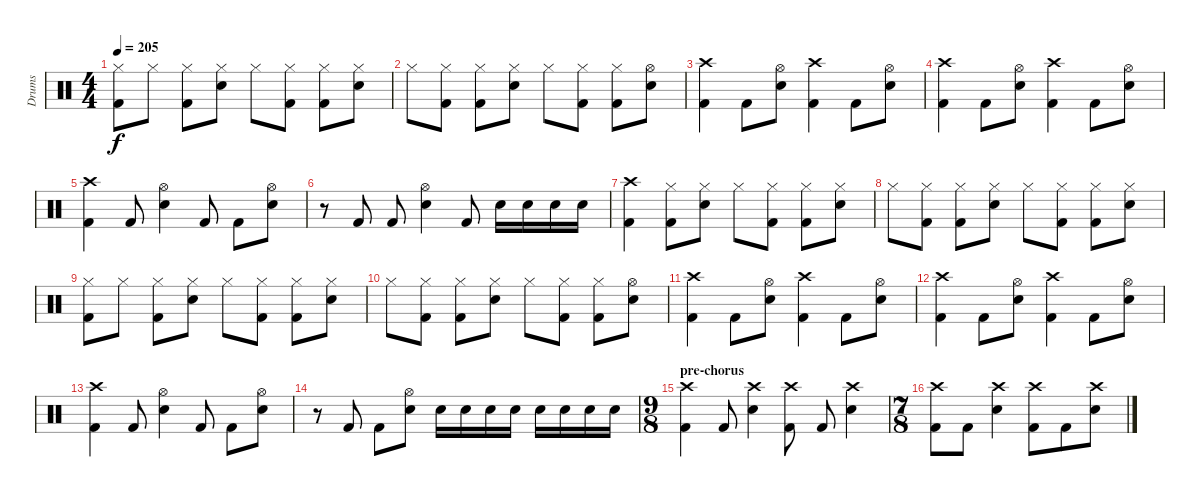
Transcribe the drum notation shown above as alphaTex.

\track ("Drums" "Drums") {instrument percussion}
\staff {score}
\articulation defaults
\ts (4 4)
\tempo 205
\clef neutral
\ks c
("Hi-Hat (closed)" "Kick (hit) 2").8{dy f} "Hi-Hat (closed)".8 ("Hi-Hat (closed)" "Kick (hit) 2").8 ("Hi-Hat (closed)" "Electric Snare (hit)").8 "Hi-Hat (closed)".8 ("Hi-Hat (closed)" "Kick (hit) 2").8 ("Hi-Hat (closed)" "Kick (hit) 2").8 ("Hi-Hat (closed)" "Electric Snare (hit)").8 |
"Hi-Hat (closed)".8 ("Hi-Hat (closed)" "Kick (hit) 2").8 ("Hi-Hat (closed)" "Kick (hit) 2").8 ("Hi-Hat (closed)" "Electric Snare (hit)").8 "Hi-Hat (closed)".8 ("Hi-Hat (closed)" "Kick (hit) 2").8 ("Hi-Hat (closed)" "Kick (hit) 2").8 ("Hi-Hat (open)" "Electric Snare (hit)").8 |
("Crash high (hit)" "Kick (hit) 2").4 "Kick (hit) 2".8 ("Hi-Hat (open)" "Electric Snare (hit)").8 ("Crash high (hit)" "Kick (hit) 2").4 "Kick (hit) 2".8 ("Hi-Hat (open)" "Electric Snare (hit)").8 |
("Crash high (hit)" "Kick (hit) 2").4 "Kick (hit) 2".8 ("Hi-Hat (open)" "Electric Snare (hit)").8 ("Crash high (hit)" "Kick (hit) 2").4 "Kick (hit) 2".8 ("Hi-Hat (open)" "Electric Snare (hit)").8 |
("Crash high (hit)" "Kick (hit) 2").4 "Kick (hit) 2".8 ("Hi-Hat (open)" "Electric Snare (hit)").4 "Kick (hit) 2".8 "Kick (hit) 2".8 ("Hi-Hat (open)" "Electric Snare (hit)").8 |
r.8 "Kick (hit) 2".8 "Kick (hit) 2".8 ("Hi-Hat (open)" "Electric Snare (hit)").4 "Kick (hit) 2".8 "Electric Snare (hit)".16 "Electric Snare (hit)".16 "Electric Snare (hit)".16 "Electric Snare (hit)".16 |
("Crash high (hit)" "Kick (hit) 2").4 ("Hi-Hat (closed)" "Kick (hit) 2").8 ("Hi-Hat (closed)" "Electric Snare (hit)").8 "Hi-Hat (closed)".8 ("Hi-Hat (closed)" "Kick (hit) 2").8 ("Hi-Hat (closed)" "Kick (hit) 2").8 ("Hi-Hat (closed)" "Electric Snare (hit)").8 |
"Hi-Hat (closed)".8 ("Hi-Hat (closed)" "Kick (hit) 2").8 ("Hi-Hat (closed)" "Kick (hit) 2").8 ("Hi-Hat (closed)" "Electric Snare (hit)").8 "Hi-Hat (closed)".8 ("Hi-Hat (closed)" "Kick (hit) 2").8 ("Hi-Hat (closed)" "Kick (hit) 2").8 ("Hi-Hat (closed)" "Electric Snare (hit)").8 |
("Hi-Hat (closed)" "Kick (hit) 2").8 "Hi-Hat (closed)".8 ("Hi-Hat (closed)" "Kick (hit) 2").8 ("Hi-Hat (closed)" "Electric Snare (hit)").8 "Hi-Hat (closed)".8 ("Hi-Hat (closed)" "Kick (hit) 2").8 ("Hi-Hat (closed)" "Kick (hit) 2").8 ("Hi-Hat (closed)" "Electric Snare (hit)").8 |
"Hi-Hat (closed)".8 ("Hi-Hat (closed)" "Kick (hit) 2").8 ("Hi-Hat (closed)" "Kick (hit) 2").8 ("Hi-Hat (closed)" "Electric Snare (hit)").8 "Hi-Hat (closed)".8 ("Hi-Hat (closed)" "Kick (hit) 2").8 ("Hi-Hat (closed)" "Kick (hit) 2").8 ("Hi-Hat (open)" "Electric Snare (hit)").8 |
("Crash high (hit)" "Kick (hit) 2").4 "Kick (hit) 2".8 ("Hi-Hat (open)" "Electric Snare (hit)").8 ("Crash high (hit)" "Kick (hit) 2").4 "Kick (hit) 2".8 ("Hi-Hat (open)" "Electric Snare (hit)").8 |
("Crash high (hit)" "Kick (hit) 2").4 "Kick (hit) 2".8 ("Hi-Hat (open)" "Electric Snare (hit)").8 ("Crash high (hit)" "Kick (hit) 2").4 "Kick (hit) 2".8 ("Hi-Hat (open)" "Electric Snare (hit)").8 |
("Crash high (hit)" "Kick (hit) 2").4 "Kick (hit) 2".8 ("Hi-Hat (open)" "Electric Snare (hit)").4 "Kick (hit) 2".8 "Kick (hit) 2".8 ("Hi-Hat (open)" "Electric Snare (hit)").8 |
r.8 "Kick (hit) 2".8 "Kick (hit) 2".8 ("Hi-Hat (open)" "Electric Snare (hit)").8 "Electric Snare (hit)".16 "Electric Snare (hit)".16 "Electric Snare (hit)".16 "Electric Snare (hit)".16 "Electric Snare (hit)".16 "Electric Snare (hit)".16 "Electric Snare (hit)".16 "Electric Snare (hit)".16 |
\ts (9 8)
\section ("" "pre-chorus")
("Crash high (hit)" "Kick (hit) 2").4 "Kick (hit) 2".8 ("Crash high (hit)" "Electric Snare (hit)").4 ("Crash high (hit)" "Kick (hit) 2").8 "Kick (hit) 2".8 ("Crash high (hit)" "Electric Snare (hit)").4 |
\ts (7 8)
("Crash high (hit)" "Kick (hit) 2").8 "Kick (hit) 2".8 ("Crash high (hit)" "Electric Snare (hit)").4 ("Crash high (hit)" "Kick (hit) 2").8 "Kick (hit) 2".8 ("Crash high (hit)" "Electric Snare (hit)").8
